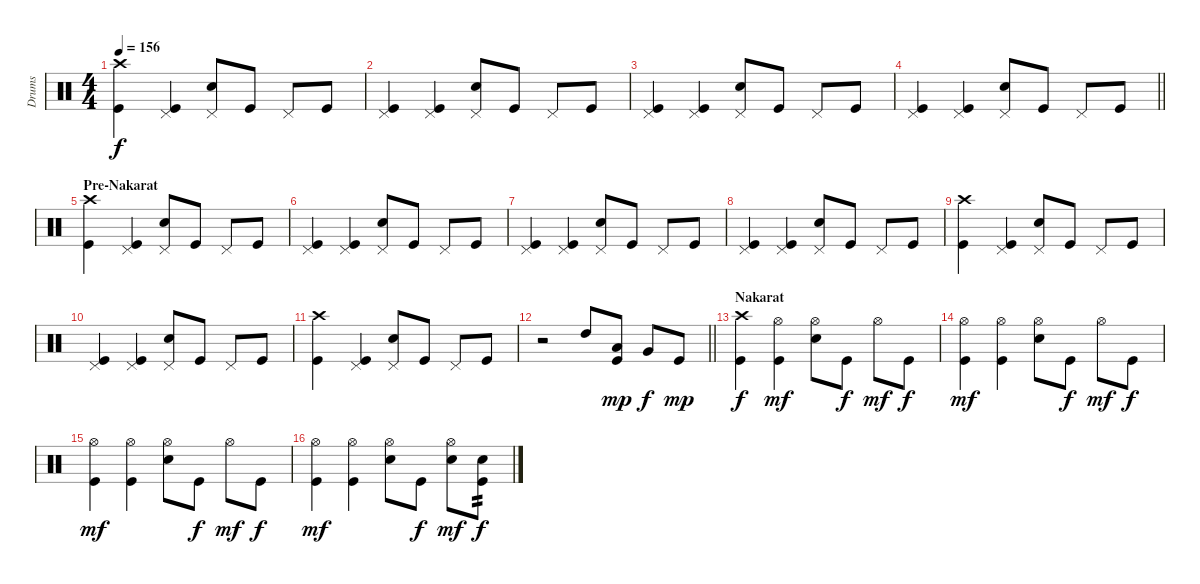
\track ("Drums" "Drums") {instrument percussion}
\staff {score}
\articulation defaults
\ts (4 4)
\tempo 156
\clef neutral
\ks c
("Kick (hit)" "Crash high (hit)").4{dy f} ("Kick (hit)" "Pedal Hi-Hat (hit)").4 ("Snare (hit) 2" "Pedal Hi-Hat (hit)").8 "Kick (hit)".8 "Pedal Hi-Hat (hit)".8 "Kick (hit)".8 |
("Kick (hit)" "Pedal Hi-Hat (hit)").4 ("Kick (hit)" "Pedal Hi-Hat (hit)").4 ("Snare (hit) 2" "Pedal Hi-Hat (hit)").8 "Kick (hit)".8 "Pedal Hi-Hat (hit)".8 "Kick (hit)".8 |
("Kick (hit)" "Pedal Hi-Hat (hit)").4 ("Kick (hit)" "Pedal Hi-Hat (hit)").4 ("Snare (hit) 2" "Pedal Hi-Hat (hit)").8 "Kick (hit)".8 "Pedal Hi-Hat (hit)".8 "Kick (hit)".8 |
\barLineRight lightlight
("Kick (hit)" "Pedal Hi-Hat (hit)").4 ("Kick (hit)" "Pedal Hi-Hat (hit)").4 ("Snare (hit) 2" "Pedal Hi-Hat (hit)").8 "Kick (hit)".8 "Pedal Hi-Hat (hit)".8 "Kick (hit)".8 |
\section ("" "Pre-Nakarat")
("Kick (hit)" "Crash high (hit)").4 ("Kick (hit)" "Pedal Hi-Hat (hit)").4 ("Snare (hit) 2" "Pedal Hi-Hat (hit)").8 "Kick (hit)".8 "Pedal Hi-Hat (hit)".8 "Kick (hit)".8 |
("Kick (hit)" "Pedal Hi-Hat (hit)").4 ("Kick (hit)" "Pedal Hi-Hat (hit)").4 ("Snare (hit) 2" "Pedal Hi-Hat (hit)").8 "Kick (hit)".8 "Pedal Hi-Hat (hit)".8 "Kick (hit)".8 |
("Kick (hit)" "Pedal Hi-Hat (hit)").4 ("Kick (hit)" "Pedal Hi-Hat (hit)").4 ("Snare (hit) 2" "Pedal Hi-Hat (hit)").8 "Kick (hit)".8 "Pedal Hi-Hat (hit)".8 "Kick (hit)".8 |
("Kick (hit)" "Pedal Hi-Hat (hit)").4 ("Kick (hit)" "Pedal Hi-Hat (hit)").4 ("Snare (hit) 2" "Pedal Hi-Hat (hit)").8 "Kick (hit)".8 "Pedal Hi-Hat (hit)".8 "Kick (hit)".8 |
("Kick (hit)" "Crash high (hit)").4 ("Kick (hit)" "Pedal Hi-Hat (hit)").4 ("Snare (hit) 2" "Pedal Hi-Hat (hit)").8 "Kick (hit)".8 "Pedal Hi-Hat (hit)".8 "Kick (hit)".8 |
("Kick (hit)" "Pedal Hi-Hat (hit)").4 ("Kick (hit)" "Pedal Hi-Hat (hit)").4 ("Snare (hit) 2" "Pedal Hi-Hat (hit)").8 "Kick (hit)".8 "Pedal Hi-Hat (hit)".8 "Kick (hit)".8 |
("Kick (hit)" "Crash high (hit)").4 ("Kick (hit)" "Pedal Hi-Hat (hit)").4 ("Snare (hit) 2" "Pedal Hi-Hat (hit)").8 "Kick (hit)".8 "Pedal Hi-Hat (hit)".8 "Kick (hit)".8 |
\barLineRight lightlight
r.2 "High Tom (hit)".8 ("Kick (hit)" "Low Tom (hit)").8{dy mp} "Very Low Tom (hit)".8{dy f} "Kick (hit)".8{dy mp} |
\section ("" "Nakarat")
("Kick (hit)" "Crash high (hit)").4{dy f} ("Kick (hit)" "Hi-Hat (open)").4{dy mf} ("Snare (hit) 2" "Hi-Hat (open)").8 "Kick (hit)".8{dy f} "Hi-Hat (open)".8{dy mf} "Kick (hit)".8{dy f} |
("Kick (hit)" "Hi-Hat (open)").4{dy mf} ("Kick (hit)" "Hi-Hat (open)").4 ("Snare (hit) 2" "Hi-Hat (open)").8 "Kick (hit)".8{dy f} "Hi-Hat (open)".8{dy mf} "Kick (hit)".8{dy f} |
("Kick (hit)" "Hi-Hat (open)").4{dy mf} ("Kick (hit)" "Hi-Hat (open)").4 ("Snare (hit) 2" "Hi-Hat (open)").8 "Kick (hit)".8{dy f} "Hi-Hat (open)".8{dy mf} "Kick (hit)".8{dy f} |
("Kick (hit)" "Hi-Hat (open)").4{dy mf} ("Kick (hit)" "Hi-Hat (open)").4 ("Snare (hit) 2" "Hi-Hat (open)").8 "Kick (hit)".8{dy f} ("Snare (hit) 2" "Hi-Hat (open)").8{dy mf} ("Kick (hit)" "Snare (hit) 2").8{tp 2 dy f}
